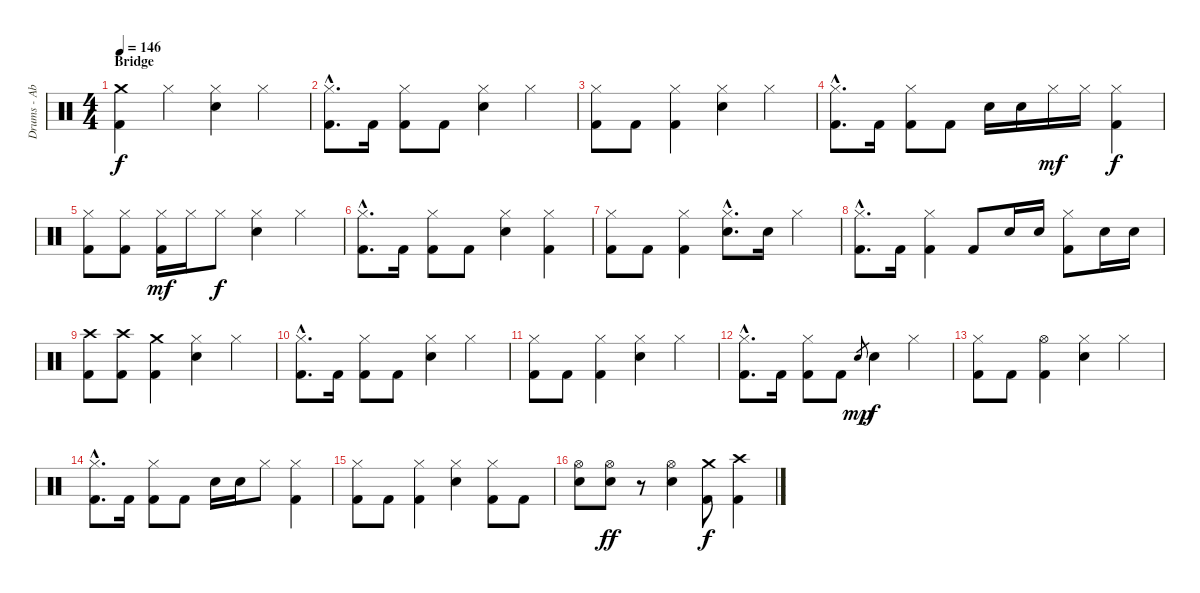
\track ("Drums - Abe Cunningham" "Drums - Ab") {instrument percussion}
\staff {score}
\articulation defaults
\ts (4 4)
\section ("" "Bridge")
\tempo 146
\clef neutral
\ks c
("Crash medium (hit)" "Kick (hit) 2").4{dy f} "Hi-Hat (closed)".4 ("Hi-Hat (closed)" "Electric Snare (hit)").4 "Hi-Hat (closed)".4 |
("Hi-Hat (closed)"{hac} "Kick (hit) 2"{hac}).8{d} "Kick (hit) 2".16 ("Hi-Hat (closed)" "Kick (hit) 2").8 "Kick (hit) 2".8 ("Hi-Hat (closed)" "Electric Snare (hit)").4 "Hi-Hat (closed)".4 |
("Hi-Hat (closed)" "Kick (hit) 2").8 "Kick (hit) 2".8 ("Hi-Hat (closed)" "Kick (hit) 2").4 ("Hi-Hat (closed)" "Electric Snare (hit)").4 "Hi-Hat (closed)".4 |
("Hi-Hat (closed)"{hac} "Kick (hit) 2"{hac}).8{d} "Kick (hit) 2".16 ("Hi-Hat (closed)" "Kick (hit) 2").8 "Kick (hit) 2".8 "Electric Snare (hit)".16 "Electric Snare (hit)".16 "Hi-Hat (closed)".16{dy mf} "Hi-Hat (closed)".16 ("Hi-Hat (closed)" "Kick (hit) 2").4{dy f} |
("Hi-Hat (closed)" "Kick (hit) 2").8 ("Hi-Hat (closed)" "Kick (hit) 2").8 ("Hi-Hat (closed)" "Kick (hit) 2").16{dy mf} "Hi-Hat (closed)".16 "Hi-Hat (closed)".8{dy f} ("Hi-Hat (closed)" "Electric Snare (hit)").4 "Hi-Hat (closed)".4 |
("Hi-Hat (closed)"{hac} "Kick (hit) 2"{hac}).8{d} "Kick (hit) 2".16 ("Hi-Hat (closed)" "Kick (hit) 2").8 "Kick (hit) 2".8 ("Hi-Hat (closed)" "Electric Snare (hit)").4 ("Hi-Hat (closed)" "Kick (hit) 2").4 |
("Hi-Hat (closed)" "Kick (hit) 2").8 "Kick (hit) 2".8 ("Hi-Hat (closed)" "Kick (hit) 2").4 ("Hi-Hat (closed)"{hac} "Electric Snare (hit)"{hac}).8{d} "Electric Snare (hit)".16 "Hi-Hat (closed)".4 |
("Hi-Hat (closed)"{hac} "Kick (hit) 2"{hac}).8{d} "Kick (hit) 2".16 ("Hi-Hat (closed)" "Kick (hit) 2").4 "Kick (hit) 2".8 "Electric Snare (hit)".16 "Electric Snare (hit)".16 ("Hi-Hat (closed)" "Kick (hit) 2").8 "Electric Snare (hit)".16 "Electric Snare (hit)".16 |
("Crash high (hit)" "Kick (hit) 2").8 ("Crash high (hit)" "Kick (hit) 2").8 ("Crash medium (hit)" "Kick (hit) 2").4 ("Hi-Hat (closed)" "Electric Snare (hit)").4 "Hi-Hat (closed)".4 |
("Hi-Hat (closed)"{hac} "Kick (hit) 2"{hac}).8{d} "Kick (hit) 2".16 ("Hi-Hat (closed)" "Kick (hit) 2").8 "Kick (hit) 2".8 ("Hi-Hat (closed)" "Electric Snare (hit)").4 "Hi-Hat (closed)".4 |
("Hi-Hat (closed)" "Kick (hit) 2").8 "Kick (hit) 2".8 ("Hi-Hat (closed)" "Kick (hit) 2").4 ("Hi-Hat (closed)" "Electric Snare (hit)").4 "Hi-Hat (closed)".4 |
("Hi-Hat (closed)"{hac} "Kick (hit) 2"{hac}).8{d} "Kick (hit) 2".16 ("Hi-Hat (closed)" "Kick (hit) 2").8 "Kick (hit) 2".8 "Electric Snare (hit)".8{gr dy mp} "Electric Snare (hit)".4{dy f} "Hi-Hat (closed)".4 |
("Hi-Hat (closed)" "Kick (hit) 2").8 "Kick (hit) 2".8 ("Hi-Hat (open)" "Kick (hit) 2").4 ("Hi-Hat (closed)" "Electric Snare (hit)").4 "Hi-Hat (closed)".4 |
("Hi-Hat (closed)"{hac} "Kick (hit) 2"{hac}).8{d} "Kick (hit) 2".16 ("Hi-Hat (closed)" "Kick (hit) 2").8 "Kick (hit) 2".8 "Electric Snare (hit)".16 "Electric Snare (hit)".16 "Hi-Hat (closed)".8 ("Hi-Hat (closed)" "Kick (hit) 2").4 |
("Hi-Hat (closed)" "Kick (hit) 2").8 "Kick (hit) 2".8 ("Hi-Hat (closed)" "Kick (hit) 2").4 ("Hi-Hat (closed)" "Electric Snare (hit)").4 ("Hi-Hat (closed)" "Kick (hit) 2").8 "Kick (hit) 2".8 |
("Hi-Hat (open)" "Electric Snare (hit)").8 ("Hi-Hat (open)" "Electric Snare (hit)").8{dy ff} r.8 ("Hi-Hat (open)" "Electric Snare (hit)").4 ("Crash medium (hit)" "Kick (hit) 2").8{dy f} ("Crash high (hit)" "Kick (hit) 2").4
